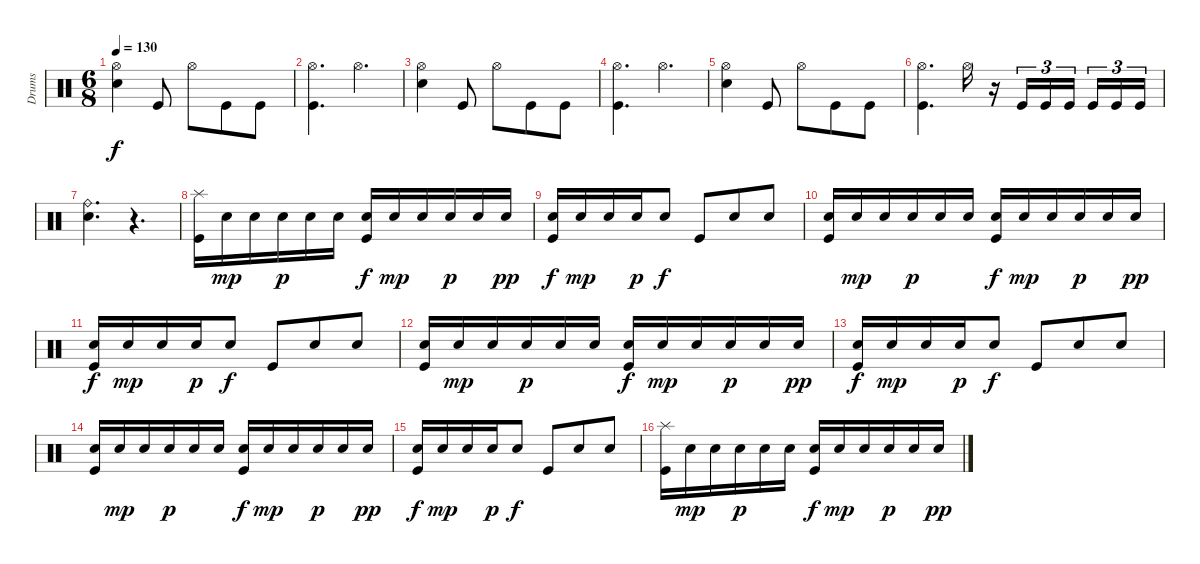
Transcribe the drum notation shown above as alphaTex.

\track ("Drums" "Drums") {instrument percussion}
\staff {score}
\articulation defaults
\ts (6 8)
\tempo 130
\clef neutral
\ks c
("Snare (hit) 2" "Hi-Hat (open)").4{dy f} "Kick (hit)".8 "Hi-Hat (open)".8 "Kick (hit)".8 "Kick (hit)".8 |
("Kick (hit)" "Hi-Hat (open)").4{d} "Hi-Hat (open)".4{d} |
("Snare (hit) 2" "Hi-Hat (open)").4 "Kick (hit)".8 "Hi-Hat (open)".8 "Kick (hit)".8 "Kick (hit)".8 |
("Kick (hit)" "Hi-Hat (open)").4{d} "Hi-Hat (open)".4{d} |
("Snare (hit) 2" "Hi-Hat (open)").4 "Kick (hit)".8 "Hi-Hat (open)".8 "Kick (hit)".8 "Kick (hit)".8 |
("Kick (hit)" "Hi-Hat (open)").4{d} "Hi-Hat (open)".16 r.16 "Kick (hit)".16{tu (3 2)} "Kick (hit)".16{tu (3 2)} "Kick (hit)".16{tu (3 2) beam splitsecondary} "Kick (hit)".16{tu (3 2)} "Kick (hit)".16{tu (3 2)} "Kick (hit)".16{tu (3 2)} |
("Snare (hit) 2" "Ride (bell)").4{d} r.4{d} |
("Kick (hit)" "Splash (hit)").16 "Snare (hit) 2".16{dy mp} "Snare (hit) 2".16 "Snare (hit) 2".16{dy p} "Snare (hit) 2".16 "Snare (hit) 2".16 ("Kick (hit)" "Snare (hit) 2").16{dy f} "Snare (hit) 2".16{dy mp} "Snare (hit) 2".16 "Snare (hit) 2".16{dy p} "Snare (hit) 2".16 "Snare (hit) 2".16{dy pp} |
("Kick (hit)" "Snare (hit) 2").16{dy f} "Snare (hit) 2".16{dy mp} "Snare (hit) 2".16 "Snare (hit) 2".16{dy p} "Snare (hit) 2".8{dy f} "Kick (hit)".8 "Snare (hit) 2".8 "Snare (hit) 2".8 |
("Kick (hit)" "Snare (hit) 2").16 "Snare (hit) 2".16{dy mp} "Snare (hit) 2".16 "Snare (hit) 2".16{dy p} "Snare (hit) 2".16 "Snare (hit) 2".16 ("Kick (hit)" "Snare (hit) 2").16{dy f} "Snare (hit) 2".16{dy mp} "Snare (hit) 2".16 "Snare (hit) 2".16{dy p} "Snare (hit) 2".16 "Snare (hit) 2".16{dy pp} |
("Kick (hit)" "Snare (hit) 2").16{dy f} "Snare (hit) 2".16{dy mp} "Snare (hit) 2".16 "Snare (hit) 2".16{dy p} "Snare (hit) 2".8{dy f} "Kick (hit)".8 "Snare (hit) 2".8 "Snare (hit) 2".8 |
("Kick (hit)" "Snare (hit) 2").16 "Snare (hit) 2".16{dy mp} "Snare (hit) 2".16 "Snare (hit) 2".16{dy p} "Snare (hit) 2".16 "Snare (hit) 2".16 ("Kick (hit)" "Snare (hit) 2").16{dy f} "Snare (hit) 2".16{dy mp} "Snare (hit) 2".16 "Snare (hit) 2".16{dy p} "Snare (hit) 2".16 "Snare (hit) 2".16{dy pp} |
("Kick (hit)" "Snare (hit) 2").16{dy f} "Snare (hit) 2".16{dy mp} "Snare (hit) 2".16 "Snare (hit) 2".16{dy p} "Snare (hit) 2".8{dy f} "Kick (hit)".8 "Snare (hit) 2".8 "Snare (hit) 2".8 |
("Kick (hit)" "Snare (hit) 2").16 "Snare (hit) 2".16{dy mp} "Snare (hit) 2".16 "Snare (hit) 2".16{dy p} "Snare (hit) 2".16 "Snare (hit) 2".16 ("Kick (hit)" "Snare (hit) 2").16{dy f} "Snare (hit) 2".16{dy mp} "Snare (hit) 2".16 "Snare (hit) 2".16{dy p} "Snare (hit) 2".16 "Snare (hit) 2".16{dy pp} |
("Kick (hit)" "Snare (hit) 2").16{dy f} "Snare (hit) 2".16{dy mp} "Snare (hit) 2".16 "Snare (hit) 2".16{dy p} "Snare (hit) 2".8{dy f} "Kick (hit)".8 "Snare (hit) 2".8 "Snare (hit) 2".8 |
("Kick (hit)" "Splash (hit)").16 "Snare (hit) 2".16{dy mp} "Snare (hit) 2".16 "Snare (hit) 2".16{dy p} "Snare (hit) 2".16 "Snare (hit) 2".16 ("Kick (hit)" "Snare (hit) 2").16{dy f} "Snare (hit) 2".16{dy mp} "Snare (hit) 2".16 "Snare (hit) 2".16{dy p} "Snare (hit) 2".16 "Snare (hit) 2".16{dy pp}
